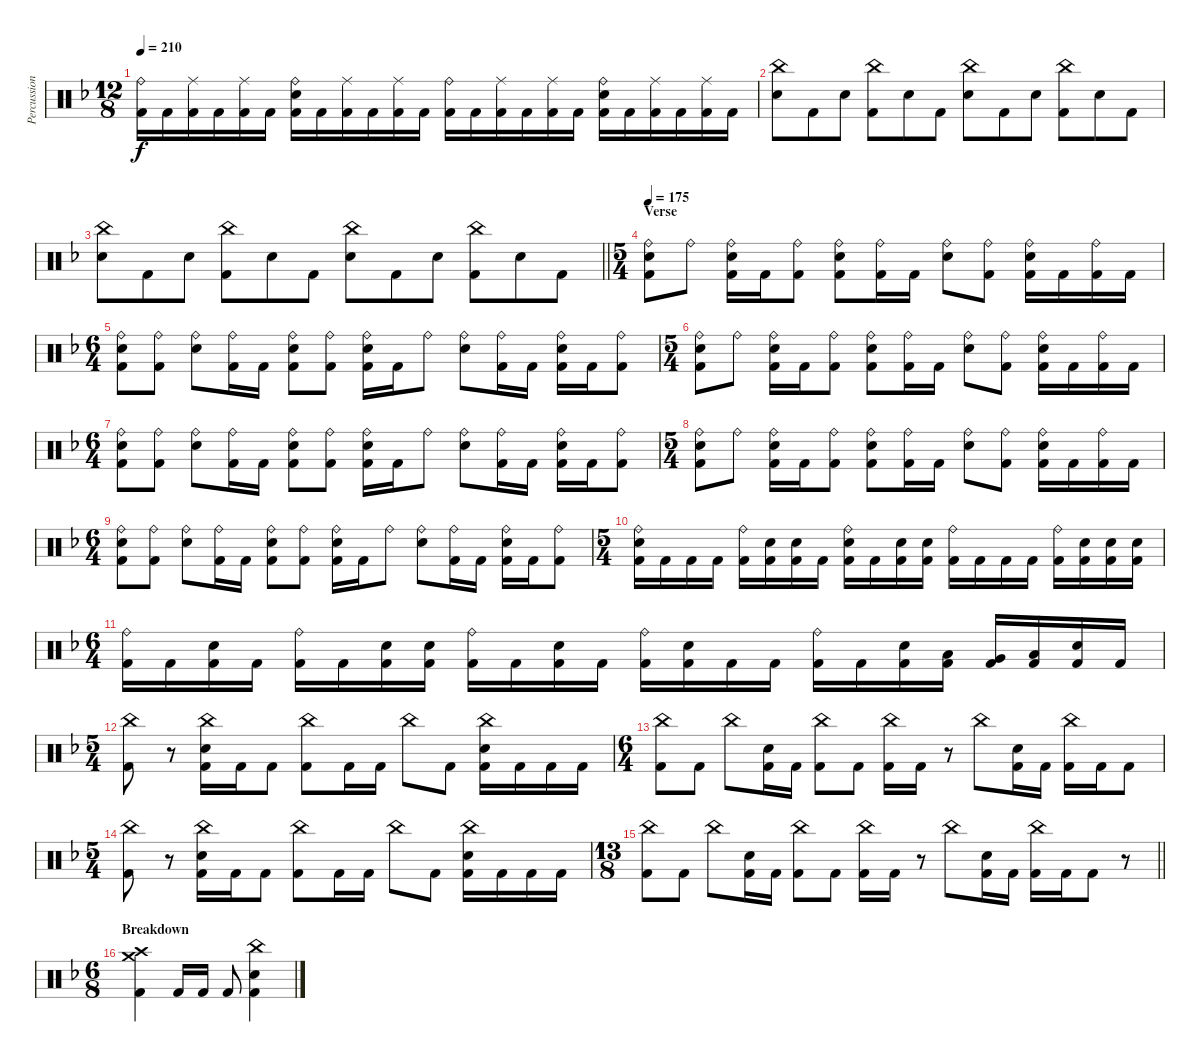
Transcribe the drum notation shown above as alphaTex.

\track ("Percussion" "Percussion") {instrument percussion}
\staff {score}
\articulation defaults
\ts (12 8)
\tempo 210
\clef neutral
\ks dminor
("Ride (bell)" "Kick (hit) 2").16{dy f} "Kick (hit) 2".16 ("Ride (middle)" "Kick (hit) 2").16 "Kick (hit) 2".16 ("Ride (middle)" "Kick (hit) 2").16 "Kick (hit) 2".16 ("Ride (bell)" "Electric Snare (hit)" "Kick (hit) 2").16 "Kick (hit) 2".16 ("Ride (middle)" "Kick (hit) 2").16 "Kick (hit) 2".16 ("Ride (middle)" "Kick (hit) 2").16 "Kick (hit) 2".16 ("Ride (bell)" "Kick (hit) 2").16 "Kick (hit) 2".16 ("Ride (middle)" "Kick (hit) 2").16 "Kick (hit) 2".16 ("Ride (middle)" "Kick (hit) 2").16 "Kick (hit) 2".16 ("Ride (bell)" "Electric Snare (hit)" "Kick (hit) 2").16 "Kick (hit) 2".16 ("Ride (middle)" "Kick (hit) 2").16 "Kick (hit) 2".16 ("Ride (middle)" "Kick (hit) 2").16 "Kick (hit) 2".16 |
("China (hit)" "Electric Snare (hit)").8 "Kick (hit) 2".8 "Electric Snare (hit)".8 ("China (hit)" "Kick (hit) 2").8 "Electric Snare (hit)".8 "Kick (hit) 2".8 ("China (hit)" "Electric Snare (hit)").8 "Kick (hit) 2".8 "Electric Snare (hit)".8 ("China (hit)" "Kick (hit) 2").8 "Electric Snare (hit)".8 "Kick (hit) 2".8 |
\barLineRight lightlight
("China (hit)" "Electric Snare (hit)").8 "Kick (hit) 2".8 "Electric Snare (hit)".8 ("China (hit)" "Kick (hit) 2").8 "Electric Snare (hit)".8 "Kick (hit) 2".8 ("China (hit)" "Electric Snare (hit)").8 "Kick (hit) 2".8 "Electric Snare (hit)".8 ("China (hit)" "Kick (hit) 2").8 "Electric Snare (hit)".8 "Kick (hit) 2".8 |
\ts (5 4)
\section ("" "Verse")
\tempo 175
("Ride (bell)" "Electric Snare (hit)" "Kick (hit) 2").8 "Ride (bell)".8 ("Ride (bell)" "Electric Snare (hit)" "Kick (hit) 2").16 "Kick (hit) 2".16 ("Ride (bell)" "Kick (hit) 2").8 ("Ride (bell)" "Electric Snare (hit)" "Kick (hit) 2").8 ("Ride (bell)" "Kick (hit) 2").16 "Kick (hit) 2".16 ("Ride (bell)" "Electric Snare (hit)").8 ("Ride (bell)" "Kick (hit) 2").8 ("Ride (bell)" "Electric Snare (hit)" "Kick (hit) 2").16 "Kick (hit) 2".16 ("Ride (bell)" "Kick (hit) 2").16 "Kick (hit) 2".16 |
\ts (6 4)
("Ride (bell)" "Electric Snare (hit)" "Kick (hit) 2").8 ("Ride (bell)" "Kick (hit) 2").8 ("Ride (bell)" "Electric Snare (hit)").8 ("Ride (bell)" "Kick (hit) 2").16 "Kick (hit) 2".16 ("Ride (bell)" "Electric Snare (hit)" "Kick (hit) 2").8 ("Ride (bell)" "Kick (hit) 2").8 ("Ride (bell)" "Electric Snare (hit)" "Kick (hit) 2").16 "Kick (hit) 2".16 "Ride (bell)".8 ("Ride (bell)" "Electric Snare (hit)").8 ("Ride (bell)" "Kick (hit) 2").16 "Kick (hit) 2".16 ("Ride (bell)" "Electric Snare (hit)" "Kick (hit) 2").16 "Kick (hit) 2".16 ("Ride (bell)" "Kick (hit) 2").8 |
\ts (5 4)
("Ride (bell)" "Electric Snare (hit)" "Kick (hit) 2").8 "Ride (bell)".8 ("Ride (bell)" "Electric Snare (hit)" "Kick (hit) 2").16 "Kick (hit) 2".16 ("Ride (bell)" "Kick (hit) 2").8 ("Ride (bell)" "Electric Snare (hit)" "Kick (hit) 2").8 ("Ride (bell)" "Kick (hit) 2").16 "Kick (hit) 2".16 ("Ride (bell)" "Electric Snare (hit)").8 ("Ride (bell)" "Kick (hit) 2").8 ("Ride (bell)" "Electric Snare (hit)" "Kick (hit) 2").16 "Kick (hit) 2".16 ("Ride (bell)" "Kick (hit) 2").16 "Kick (hit) 2".16 |
\ts (6 4)
("Ride (bell)" "Electric Snare (hit)" "Kick (hit) 2").8 ("Ride (bell)" "Kick (hit) 2").8 ("Ride (bell)" "Electric Snare (hit)").8 ("Ride (bell)" "Kick (hit) 2").16 "Kick (hit) 2".16 ("Ride (bell)" "Electric Snare (hit)" "Kick (hit) 2").8 ("Ride (bell)" "Kick (hit) 2").8 ("Ride (bell)" "Electric Snare (hit)" "Kick (hit) 2").16 "Kick (hit) 2".16 "Ride (bell)".8 ("Ride (bell)" "Electric Snare (hit)").8 ("Ride (bell)" "Kick (hit) 2").16 "Kick (hit) 2".16 ("Ride (bell)" "Electric Snare (hit)" "Kick (hit) 2").16 "Kick (hit) 2".16 ("Ride (bell)" "Kick (hit) 2").8 |
\ts (5 4)
("Ride (bell)" "Electric Snare (hit)" "Kick (hit) 2").8 "Ride (bell)".8 ("Ride (bell)" "Electric Snare (hit)" "Kick (hit) 2").16 "Kick (hit) 2".16 ("Ride (bell)" "Kick (hit) 2").8 ("Ride (bell)" "Electric Snare (hit)" "Kick (hit) 2").8 ("Ride (bell)" "Kick (hit) 2").16 "Kick (hit) 2".16 ("Ride (bell)" "Electric Snare (hit)").8 ("Ride (bell)" "Kick (hit) 2").8 ("Ride (bell)" "Electric Snare (hit)" "Kick (hit) 2").16 "Kick (hit) 2".16 ("Ride (bell)" "Kick (hit) 2").16 "Kick (hit) 2".16 |
\ts (6 4)
("Ride (bell)" "Electric Snare (hit)" "Kick (hit) 2").8 ("Ride (bell)" "Kick (hit) 2").8 ("Ride (bell)" "Electric Snare (hit)").8 ("Ride (bell)" "Kick (hit) 2").16 "Kick (hit) 2".16 ("Ride (bell)" "Electric Snare (hit)" "Kick (hit) 2").8 ("Ride (bell)" "Kick (hit) 2").8 ("Ride (bell)" "Electric Snare (hit)" "Kick (hit) 2").16 "Kick (hit) 2".16 "Ride (bell)".8 ("Ride (bell)" "Electric Snare (hit)").8 ("Ride (bell)" "Kick (hit) 2").16 "Kick (hit) 2".16 ("Ride (bell)" "Electric Snare (hit)" "Kick (hit) 2").16 "Kick (hit) 2".16 ("Ride (bell)" "Kick (hit) 2").8 |
\ts (5 4)
("Ride (bell)" "Electric Snare (hit)" "Kick (hit) 2").16 "Kick (hit) 2".16 "Kick (hit) 2".16 "Kick (hit) 2".16 ("Ride (bell)" "Kick (hit) 2").16 ("Electric Snare (hit)" "Kick (hit) 2").16 ("Electric Snare (hit)" "Kick (hit) 2").16 "Kick (hit) 2".16 ("Ride (bell)" "Electric Snare (hit)" "Kick (hit) 2").16 "Kick (hit) 2".16 ("Electric Snare (hit)" "Kick (hit) 2").16 ("Electric Snare (hit)" "Kick (hit) 2").16 ("Ride (bell)" "Kick (hit) 2").16 "Kick (hit) 2".16 "Kick (hit) 2".16 "Kick (hit) 2".16 ("Ride (bell)" "Kick (hit) 2").16 ("Electric Snare (hit)" "Kick (hit) 2").16 ("Electric Snare (hit)" "Kick (hit) 2").16 ("Electric Snare (hit)" "Kick (hit) 2").16 |
\ts (6 4)
("Ride (bell)" "Kick (hit) 2").16 "Kick (hit) 2".16 ("Electric Snare (hit)" "Kick (hit) 2").16 "Kick (hit) 2".16 ("Ride (bell)" "Kick (hit) 2").16 "Kick (hit) 2".16 ("Electric Snare (hit)" "Kick (hit) 2").16 ("Electric Snare (hit)" "Kick (hit) 2").16 ("Ride (bell)" "Kick (hit) 2").16 "Kick (hit) 2".16 ("Electric Snare (hit)" "Kick (hit) 2").16 "Kick (hit) 2".16 ("Ride (bell)" "Kick (hit) 2").16 ("Electric Snare (hit)" "Kick (hit) 2").16 "Kick (hit) 2".16 "Kick (hit) 2".16 ("Ride (bell)" "Kick (hit) 2").16 "Kick (hit) 2".16 ("Electric Snare (hit)" "Kick (hit) 2").16 ("Low Tom (hit)" "Kick (hit) 2").16 ("Very Low Tom (hit)" "Kick (hit) 2").16 ("Low Floor Tom (hit)" "Kick (hit) 2").16 ("Electric Snare (hit)" "Kick (hit) 2").16 "Kick (hit) 2".16 |
\ts (5 4)
("China (hit)" "Kick (hit) 2").8 r.8 ("China (hit)" "Electric Snare (hit)" "Kick (hit) 2").16 "Kick (hit) 2".16 "Kick (hit) 2".8 ("China (hit)" "Kick (hit) 2").8 "Kick (hit) 2".16 "Kick (hit) 2".16 "China (hit)".8 "Kick (hit) 2".8 ("China (hit)" "Electric Snare (hit)" "Kick (hit) 2").16 "Kick (hit) 2".16 "Kick (hit) 2".16 "Kick (hit) 2".16 |
\ts (6 4)
("China (hit)" "Kick (hit) 2").8 "Kick (hit) 2".8 "China (hit)".8 ("Electric Snare (hit)" "Kick (hit) 2").16 "Kick (hit) 2".16 ("China (hit)" "Kick (hit) 2").8 "Kick (hit) 2".8 ("China (hit)" "Kick (hit) 2").16 "Kick (hit) 2".16 r.8 "China (hit)".8 ("Electric Snare (hit)" "Kick (hit) 2").16 "Kick (hit) 2".16 ("China (hit)" "Kick (hit) 2").16 "Kick (hit) 2".16 "Kick (hit) 2".8 |
\ts (5 4)
("China (hit)" "Kick (hit) 2").8 r.8 ("China (hit)" "Electric Snare (hit)" "Kick (hit) 2").16 "Kick (hit) 2".16 "Kick (hit) 2".8 ("China (hit)" "Kick (hit) 2").8 "Kick (hit) 2".16 "Kick (hit) 2".16 "China (hit)".8 "Kick (hit) 2".8 ("China (hit)" "Electric Snare (hit)" "Kick (hit) 2").16 "Kick (hit) 2".16 "Kick (hit) 2".16 "Kick (hit) 2".16 |
\ts (13 8)
\barLineRight lightlight
("China (hit)" "Kick (hit) 2").8 "Kick (hit) 2".8 "China (hit)".8 ("Electric Snare (hit)" "Kick (hit) 2").16 "Kick (hit) 2".16 ("China (hit)" "Kick (hit) 2").8 "Kick (hit) 2".8 ("China (hit)" "Kick (hit) 2").16 "Kick (hit) 2".16 r.8 "China (hit)".8 ("Electric Snare (hit)" "Kick (hit) 2").16 "Kick (hit) 2".16 ("China (hit)" "Kick (hit) 2").16 "Kick (hit) 2".16 "Kick (hit) 2".8 r.8{volume 0} |
\ts (6 8)
\section ("" "Breakdown")
("Crash medium (hit)" "Crash high (hit)" "Kick (hit) 2").4{volume 14} "Kick (hit) 2".16 "Kick (hit) 2".16 "Kick (hit) 2".8 ("China (hit)" "Electric Snare (hit)" "Kick (hit) 2").4
